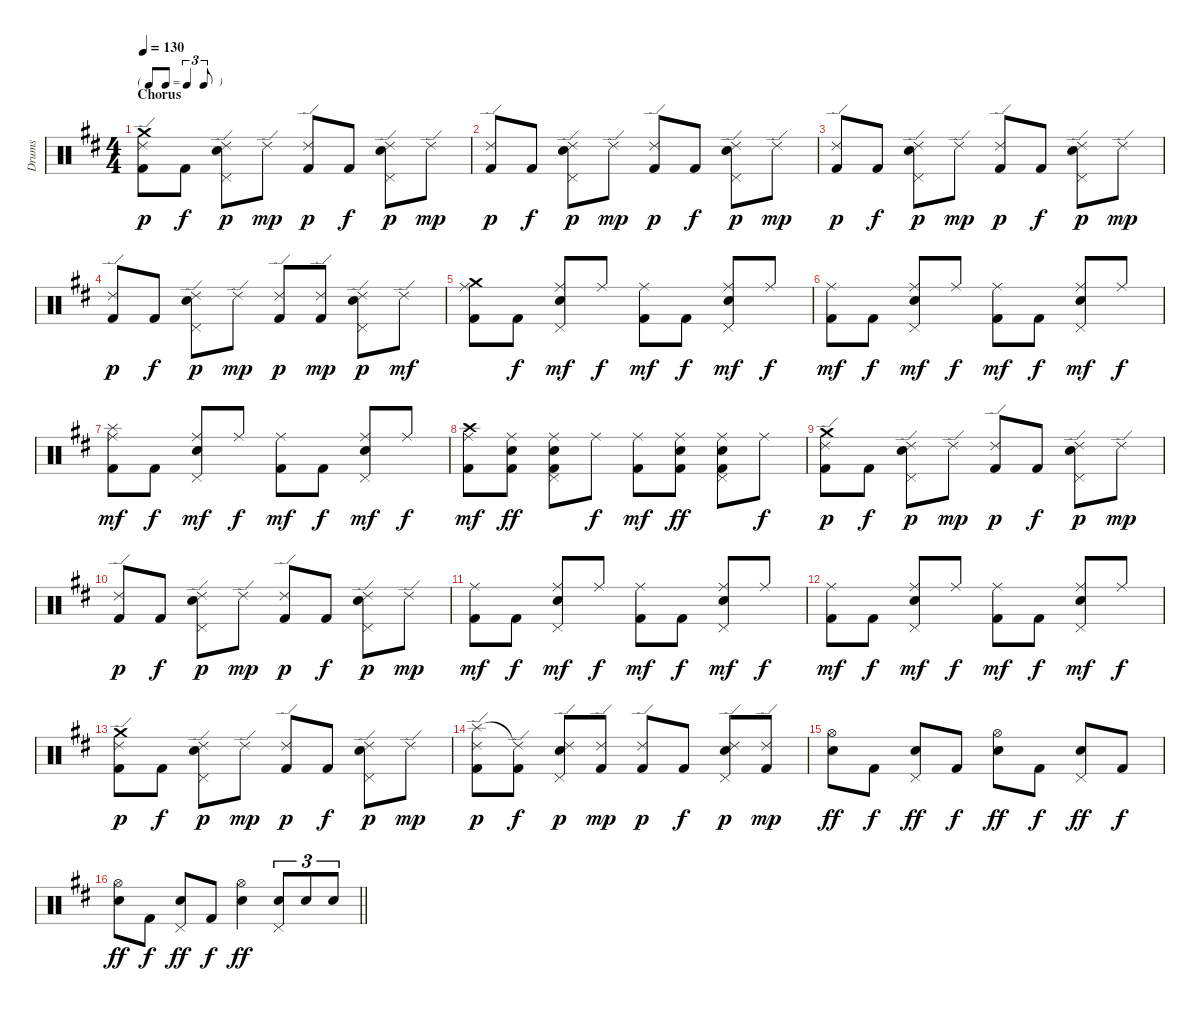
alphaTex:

\track ("Drums" "Drums") {instrument percussion}
\staff {score}
\articulation defaults
\ts (4 4)
\tf triplet8th
\section ("" "Chorus")
\tempo 130
\clef neutral
\ks d
("Crash medium (hit)" "Ride (edge) 2" "Kick (hit) 2").8{dy p} "Kick (hit) 2".8{dy f} ("Ride (edge) 2" "Pedal Hi-Hat (hit)" "Snare (hit) 2").8{dy p} "Ride (edge) 2".8{dy mp} ("Ride (edge) 2" "Kick (hit) 2").8{dy p} "Kick (hit) 2".8{dy f} ("Ride (edge) 2" "Pedal Hi-Hat (hit)" "Snare (hit) 2").8{dy p} "Ride (edge) 2".8{dy mp} |
("Ride (edge) 2" "Kick (hit) 2").8{dy p} "Kick (hit) 2".8{dy f} ("Ride (edge) 2" "Pedal Hi-Hat (hit)" "Snare (hit) 2").8{dy p} "Ride (edge) 2".8{dy mp} ("Ride (edge) 2" "Kick (hit) 2").8{dy p} "Kick (hit) 2".8{dy f} ("Ride (edge) 2" "Pedal Hi-Hat (hit)" "Snare (hit) 2").8{dy p} "Ride (edge) 2".8{dy mp} |
("Ride (edge) 2" "Kick (hit) 2").8{dy p} "Kick (hit) 2".8{dy f} ("Ride (edge) 2" "Pedal Hi-Hat (hit)" "Snare (hit) 2").8{dy p} "Ride (edge) 2".8{dy mp} ("Ride (edge) 2" "Kick (hit) 2").8{dy p} "Kick (hit) 2".8{dy f} ("Ride (edge) 2" "Pedal Hi-Hat (hit)" "Snare (hit) 2").8{dy p} "Ride (edge) 2".8{dy mp} |
("Ride (edge) 2" "Kick (hit) 2").8{dy p} "Kick (hit) 2".8{dy f} ("Ride (edge) 2" "Pedal Hi-Hat (hit)" "Snare (hit) 2").8{dy p} "Ride (edge) 2".8{dy mp} ("Ride (edge) 2" "Kick (hit) 2").8{dy p} ("Ride (edge) 2" "Kick (hit) 2").8{dy mp} ("Ride (edge) 2" "Pedal Hi-Hat (hit)" "Snare (hit) 2").8{dy p} "Ride (edge) 2".8{dy mf} |
("Crash medium (hit)" "Ride (middle)" "Kick (hit) 2").8 "Kick (hit) 2".8{dy f} ("Ride (middle)" "Pedal Hi-Hat (hit)" "Snare (hit) 2").8{dy mf} "Ride (middle)".8{dy f} ("Ride (middle)" "Kick (hit) 2").8{dy mf} "Kick (hit) 2".8{dy f} ("Ride (middle)" "Pedal Hi-Hat (hit)" "Snare (hit) 2").8{dy mf} "Ride (middle)".8{dy f} |
("Ride (middle)" "Kick (hit) 2").8{dy mf} "Kick (hit) 2".8{dy f} ("Ride (middle)" "Pedal Hi-Hat (hit)" "Snare (hit) 2").8{dy mf} "Ride (middle)".8{dy f} ("Ride (middle)" "Kick (hit) 2").8{dy mf} "Kick (hit) 2".8{dy f} ("Ride (middle)" "Pedal Hi-Hat (hit)" "Snare (hit) 2").8{dy mf} "Ride (middle)".8{dy f} |
("Splash (hit)" "Ride (middle)" "Kick (hit) 2").8{dy mf} "Kick (hit) 2".8{dy f} ("Ride (middle)" "Pedal Hi-Hat (hit)" "Snare (hit) 2").8{dy mf} "Ride (middle)".8{dy f} ("Ride (middle)" "Kick (hit) 2").8{dy mf} "Kick (hit) 2".8{dy f} ("Ride (middle)" "Pedal Hi-Hat (hit)" "Snare (hit) 2").8{dy mf} "Ride (middle)".8{dy f} |
("Crash high (hit)" "Ride (middle)" "Kick (hit) 2").8{dy mf} ("Ride (middle)" "Snare (hit) 2" "Kick (hit) 2").8{dy ff} ("Ride (middle)" "Pedal Hi-Hat (hit)" "Snare (hit) 2" "Kick (hit) 2").8 "Ride (middle)".8{dy f} ("Ride (middle)" "Kick (hit) 2").8{dy mf} ("Ride (middle)" "Snare (hit) 2" "Kick (hit) 2").8{dy ff} ("Ride (middle)" "Pedal Hi-Hat (hit)" "Snare (hit) 2" "Kick (hit) 2").8 "Ride (middle)".8{dy f} |
("Crash medium (hit)" "Ride (edge) 2" "Kick (hit) 2").8{dy p} "Kick (hit) 2".8{dy f} ("Ride (edge) 2" "Pedal Hi-Hat (hit)" "Snare (hit) 2").8{dy p} "Ride (edge) 2".8{dy mp} ("Ride (edge) 2" "Kick (hit) 2").8{dy p} "Kick (hit) 2".8{dy f} ("Ride (edge) 2" "Pedal Hi-Hat (hit)" "Snare (hit) 2").8{dy p} "Ride (edge) 2".8{dy mp} |
("Ride (edge) 2" "Kick (hit) 2").8{dy p} "Kick (hit) 2".8{dy f} ("Ride (edge) 2" "Pedal Hi-Hat (hit)" "Snare (hit) 2").8{dy p} "Ride (edge) 2".8{dy mp} ("Ride (edge) 2" "Kick (hit) 2").8{dy p} "Kick (hit) 2".8{dy f} ("Ride (edge) 2" "Pedal Hi-Hat (hit)" "Snare (hit) 2").8{dy p} "Ride (edge) 2".8{dy mp} |
("Ride (middle)" "Kick (hit) 2").8{dy mf} "Kick (hit) 2".8{dy f} ("Ride (middle)" "Pedal Hi-Hat (hit)" "Snare (hit) 2").8{dy mf} "Ride (middle)".8{dy f} ("Ride (middle)" "Kick (hit) 2").8{dy mf} "Kick (hit) 2".8{dy f} ("Ride (middle)" "Pedal Hi-Hat (hit)" "Snare (hit) 2").8{dy mf} "Ride (middle)".8{dy f} |
("Ride (middle)" "Kick (hit) 2").8{dy mf} "Kick (hit) 2".8{dy f} ("Ride (middle)" "Pedal Hi-Hat (hit)" "Snare (hit) 2").8{dy mf} "Ride (middle)".8{dy f} ("Ride (middle)" "Kick (hit) 2").8{dy mf} "Kick (hit) 2".8{dy f} ("Ride (middle)" "Pedal Hi-Hat (hit)" "Snare (hit) 2").8{dy mf} "Ride (middle)".8{dy f} |
("Crash medium (hit)" "Ride (edge) 2" "Kick (hit) 2").8{dy p} "Kick (hit) 2".8{dy f} ("Ride (edge) 2" "Pedal Hi-Hat (hit)" "Snare (hit) 2").8{dy p} "Ride (edge) 2".8{dy mp} ("Ride (edge) 2" "Kick (hit) 2").8{dy p} "Kick (hit) 2".8{dy f} ("Ride (edge) 2" "Pedal Hi-Hat (hit)" "Snare (hit) 2").8{dy p} "Ride (edge) 2".8{dy mp} |
("Splash (hit)" "Ride (edge) 2" "Kick (hit) 2").8{dy p} ("Ride (edge) 2"{t} "Kick (hit) 2").8{dy f} ("Ride (edge) 2" "Pedal Hi-Hat (hit)" "Snare (hit) 2").8{dy p} ("Ride (edge) 2" "Kick (hit) 2").8{dy mp} ("Ride (edge) 2" "Kick (hit) 2").8{dy p} "Kick (hit) 2".8{dy f} ("Ride (edge) 2" "Pedal Hi-Hat (hit)" "Snare (hit) 2").8{dy p} ("Ride (edge) 2" "Kick (hit) 2").8{dy mp} |
("Hi-Hat (open)" "Snare (hit) 2").8{dy ff} "Kick (hit) 2".8{dy f} ("Pedal Hi-Hat (hit)" "Snare (hit) 2").8{dy ff} "Kick (hit) 2".8{dy f} ("Hi-Hat (open)" "Snare (hit) 2").8{dy ff} "Kick (hit) 2".8{dy f} ("Pedal Hi-Hat (hit)" "Snare (hit) 2").8{dy ff} "Kick (hit) 2".8{dy f} |
\barLineRight lightlight
("Hi-Hat (open)" "Snare (hit) 2").8{dy ff} "Kick (hit) 2".8{dy f} ("Pedal Hi-Hat (hit)" "Snare (hit) 2").8{dy ff} "Kick (hit) 2".8{dy f} ("Hi-Hat (open)" "Snare (hit) 2").4{dy ff} ("Pedal Hi-Hat (hit)" "Snare (hit) 2").8{tu (3 2)} "Snare (hit) 2".8{tu (3 2)} "Snare (hit) 2".8{tu (3 2)}
